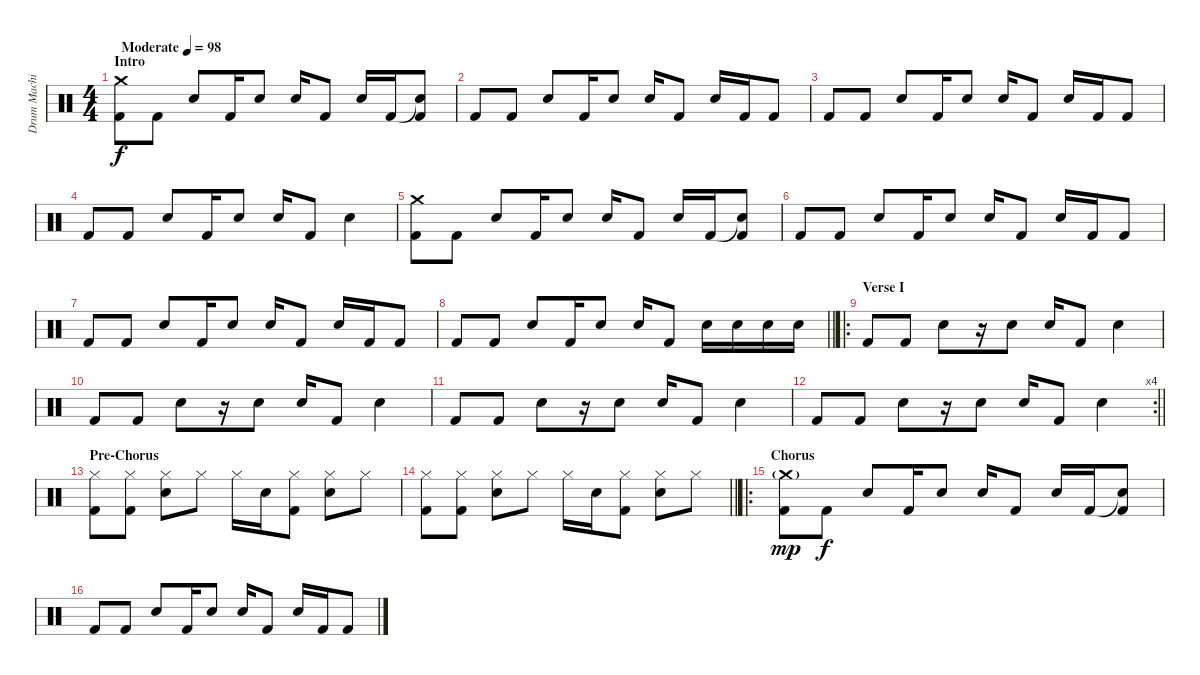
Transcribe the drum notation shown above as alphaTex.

\track ("Drum Machine" "Drum Machi") {instrument percussion}
\staff {score}
\articulation defaults
\ts (4 4)
\section ("" "Intro")
\tempo (98 "Moderate")
\clef neutral
\ks c
("Crash medium (hit)" "Kick (hit) 2").8{dy f} "Kick (hit) 2".8 "Electric Snare (hit)".8 "Kick (hit) 2".16 "Electric Snare (hit)".8 "Electric Snare (hit)".16 "Kick (hit) 2".8 "Electric Snare (hit)".16 "Kick (hit) 2".16 ("Snare (hit)"{t} "Kick (hit) 2").8 |
"Kick (hit) 2".8 "Kick (hit) 2".8 "Electric Snare (hit)".8 "Kick (hit) 2".16 "Electric Snare (hit)".8 "Electric Snare (hit)".16 "Kick (hit) 2".8 "Electric Snare (hit)".16 "Kick (hit) 2".16 "Kick (hit) 2".8 |
"Kick (hit) 2".8 "Kick (hit) 2".8 "Electric Snare (hit)".8 "Kick (hit) 2".16 "Electric Snare (hit)".8 "Electric Snare (hit)".16 "Kick (hit) 2".8 "Electric Snare (hit)".16 "Kick (hit) 2".16 "Kick (hit) 2".8 |
"Kick (hit) 2".8 "Kick (hit) 2".8 "Electric Snare (hit)".8 "Kick (hit) 2".16 "Electric Snare (hit)".8 "Electric Snare (hit)".16 "Kick (hit) 2".8 "Electric Snare (hit)".4 |
("Crash medium (hit)" "Kick (hit) 2").8 "Kick (hit) 2".8 "Electric Snare (hit)".8 "Kick (hit) 2".16 "Electric Snare (hit)".8 "Electric Snare (hit)".16 "Kick (hit) 2".8 "Electric Snare (hit)".16 "Kick (hit) 2".16 ("Snare (hit)"{t} "Kick (hit) 2").8 |
"Kick (hit) 2".8 "Kick (hit) 2".8 "Electric Snare (hit)".8 "Kick (hit) 2".16 "Electric Snare (hit)".8 "Electric Snare (hit)".16 "Kick (hit) 2".8 "Electric Snare (hit)".16 "Kick (hit) 2".16 "Kick (hit) 2".8 |
"Kick (hit) 2".8 "Kick (hit) 2".8 "Electric Snare (hit)".8 "Kick (hit) 2".16 "Electric Snare (hit)".8 "Electric Snare (hit)".16 "Kick (hit) 2".8 "Electric Snare (hit)".16 "Kick (hit) 2".16 "Kick (hit) 2".8 |
\barLineRight lightlight "Kick (hit) 2".8 "Kick (hit) 2".8 "Electric Snare (hit)".8 "Kick (hit) 2".16 "Electric Snare (hit)".8 "Electric Snare (hit)".16 "Kick (hit) 2".8 "Electric Snare (hit)".16 "Electric Snare (hit)".16 "Electric Snare (hit)".16 "Electric Snare (hit)".16
|
\ro
\section ("" "Verse I")
"Kick (hit) 2".8{volume 5} "Kick (hit) 2".8 "Electric Snare (hit)".8 r.16 "Electric Snare (hit)".8 "Electric Snare (hit)".16 "Kick (hit) 2".8 "Electric Snare (hit)".4 |
"Kick (hit) 2".8 "Kick (hit) 2".8 "Electric Snare (hit)".8 r.16 "Electric Snare (hit)".8 "Electric Snare (hit)".16 "Kick (hit) 2".8 "Electric Snare (hit)".4 |
"Kick (hit) 2".8{volume 5} "Kick (hit) 2".8 "Electric Snare (hit)".8 r.16 "Electric Snare (hit)".8 "Electric Snare (hit)".16 "Kick (hit) 2".8 "Electric Snare (hit)".4 |
\rc 4
\barLineRight lightlight "Kick (hit) 2".8 "Kick (hit) 2".8 "Electric Snare (hit)".8
r.16 "Electric Snare (hit)".8 "Electric Snare (hit)".16 "Kick (hit) 2".8 "Electric Snare (hit)".4 |
\section ("" "Pre-Chorus")
("Hi-Hat (closed)" "Kick (hit) 2").8 ("Hi-Hat (closed)" "Kick (hit) 2").8 ("Hi-Hat (closed)" "Electric Snare (hit)").8 "Hi-Hat (closed)".8 "Hi-Hat (closed)".16 "Electric Snare (hit)".16 ("Hi-Hat (closed)" "Kick (hit) 2").8 ("Hi-Hat (closed)" "Electric Snare (hit)").8 "Hi-Hat (closed)".8 |
\barLineRight lightlight
("Hi-Hat (closed)" "Kick (hit) 2").8 ("Hi-Hat (closed)" "Kick (hit) 2").8 ("Hi-Hat (closed)" "Electric Snare (hit)").8 "Hi-Hat (closed)".8 "Hi-Hat (closed)".16 "Electric Snare (hit)".16 ("Hi-Hat (closed)" "Kick (hit) 2").8 ("Hi-Hat (closed)" "Electric Snare (hit)").8 "Hi-Hat (closed)".8 |
\ro
\section ("" "Chorus")
("Crash medium (hit)"{g} "Kick (hit) 2").8{dy mp volume 9} "Kick (hit) 2".8{dy f} "Electric Snare (hit)".8 "Kick (hit) 2".16 "Electric Snare (hit)".8 "Electric Snare (hit)".16 "Kick (hit) 2".8 "Electric Snare (hit)".16 "Kick (hit) 2".16 ("Snare (hit)"{t} "Kick (hit) 2").8 |
"Kick (hit) 2".8 "Kick (hit) 2".8 "Electric Snare (hit)".8 "Kick (hit) 2".16 "Electric Snare (hit)".8 "Electric Snare (hit)".16 "Kick (hit) 2".8 "Electric Snare (hit)".16 "Kick (hit) 2".16 "Kick (hit) 2".8
